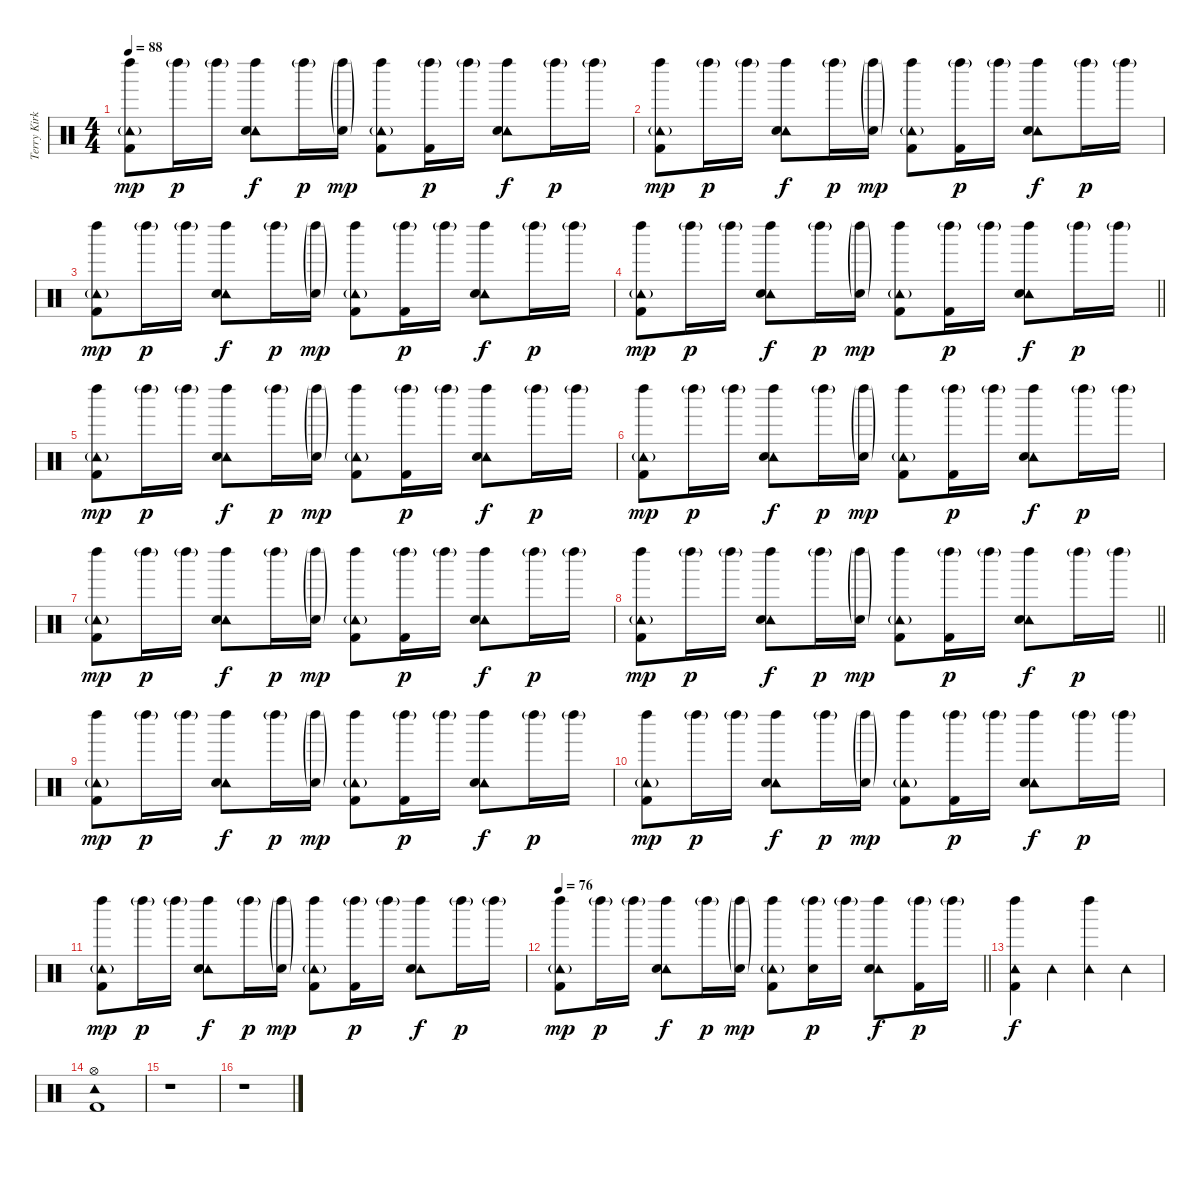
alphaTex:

\track ("Terry Kirkbride " "Terry Kirk") {instrument percussion}
\staff {score}
\articulation defaults
\ts (4 4)
\tempo 88
\clef neutral
\ks c
("Left Maraca (hit)" "Tambourine (hit)"{g} "Kick (hit) 2").8{dy mp} "Left Maraca (hit)"{g}.16{dy p} "Left Maraca (hit)"{g}.16 ("Left Maraca (hit)" "Tambourine (hit)" "Snare (hit) 2").8{dy f} "Left Maraca (hit)"{g}.16{dy p} ("Left Maraca (hit)"{g} "Snare (hit) 2"{g}).16{dy mp} ("Left Maraca (hit)" "Tambourine (hit)"{g} "Kick (hit) 2").8 ("Left Maraca (hit)"{g} "Kick (hit) 2").16{dy p} "Left Maraca (hit)"{g}.16 ("Left Maraca (hit)" "Tambourine (hit)" "Snare (hit) 2").8{dy f} "Left Maraca (hit)"{g}.16{dy p} "Left Maraca (hit)"{g}.16 |
("Left Maraca (hit)" "Tambourine (hit)"{g} "Kick (hit) 2").8{dy mp} "Left Maraca (hit)"{g}.16{dy p} "Left Maraca (hit)"{g}.16 ("Left Maraca (hit)" "Tambourine (hit)" "Snare (hit) 2").8{dy f} "Left Maraca (hit)"{g}.16{dy p} ("Left Maraca (hit)"{g} "Snare (hit) 2"{g}).16{dy mp} ("Left Maraca (hit)" "Tambourine (hit)"{g} "Kick (hit) 2").8 ("Left Maraca (hit)"{g} "Kick (hit) 2").16{dy p} "Left Maraca (hit)"{g}.16 ("Left Maraca (hit)" "Tambourine (hit)" "Snare (hit) 2").8{dy f} "Left Maraca (hit)"{g}.16{dy p} "Left Maraca (hit)"{g}.16 |
("Left Maraca (hit)" "Tambourine (hit)"{g} "Kick (hit) 2").8{dy mp} "Left Maraca (hit)"{g}.16{dy p} "Left Maraca (hit)"{g}.16 ("Left Maraca (hit)" "Tambourine (hit)" "Snare (hit) 2").8{dy f} "Left Maraca (hit)"{g}.16{dy p} ("Left Maraca (hit)"{g} "Snare (hit) 2"{g}).16{dy mp} ("Left Maraca (hit)" "Tambourine (hit)"{g} "Kick (hit) 2").8 ("Left Maraca (hit)"{g} "Kick (hit) 2").16{dy p} "Left Maraca (hit)"{g}.16 ("Left Maraca (hit)" "Tambourine (hit)" "Snare (hit) 2").8{dy f} "Left Maraca (hit)"{g}.16{dy p} "Left Maraca (hit)"{g}.16 |
\barLineRight lightlight
("Left Maraca (hit)" "Tambourine (hit)"{g} "Kick (hit) 2").8{dy mp} "Left Maraca (hit)"{g}.16{dy p} "Left Maraca (hit)"{g}.16 ("Left Maraca (hit)" "Tambourine (hit)" "Snare (hit) 2").8{dy f} "Left Maraca (hit)"{g}.16{dy p} ("Left Maraca (hit)"{g} "Snare (hit) 2"{g}).16{dy mp} ("Left Maraca (hit)" "Tambourine (hit)"{g} "Kick (hit) 2").8 ("Left Maraca (hit)"{g} "Kick (hit) 2").16{dy p} "Left Maraca (hit)"{g}.16 ("Left Maraca (hit)" "Tambourine (hit)" "Snare (hit) 2").8{dy f} "Left Maraca (hit)"{g}.16{dy p} "Left Maraca (hit)"{g}.16 |
("Left Maraca (hit)" "Tambourine (hit)"{g} "Kick (hit) 2").8{dy mp} "Left Maraca (hit)"{g}.16{dy p} "Left Maraca (hit)"{g}.16 ("Left Maraca (hit)" "Tambourine (hit)" "Snare (hit) 2").8{dy f} "Left Maraca (hit)"{g}.16{dy p} ("Left Maraca (hit)"{g} "Snare (hit) 2"{g}).16{dy mp} ("Left Maraca (hit)" "Tambourine (hit)"{g} "Kick (hit) 2").8 ("Left Maraca (hit)"{g} "Kick (hit) 2").16{dy p} "Left Maraca (hit)"{g}.16 ("Left Maraca (hit)" "Tambourine (hit)" "Snare (hit) 2").8{dy f} "Left Maraca (hit)"{g}.16{dy p} "Left Maraca (hit)"{g}.16 |
("Left Maraca (hit)" "Tambourine (hit)"{g} "Kick (hit) 2").8{dy mp} "Left Maraca (hit)"{g}.16{dy p} "Left Maraca (hit)"{g}.16 ("Left Maraca (hit)" "Tambourine (hit)" "Snare (hit) 2").8{dy f} "Left Maraca (hit)"{g}.16{dy p} ("Left Maraca (hit)"{g} "Snare (hit) 2"{g}).16{dy mp} ("Left Maraca (hit)" "Tambourine (hit)"{g} "Kick (hit) 2").8 ("Left Maraca (hit)"{g} "Kick (hit) 2").16{dy p} "Left Maraca (hit)"{g}.16 ("Left Maraca (hit)" "Tambourine (hit)" "Snare (hit) 2").8{dy f} "Left Maraca (hit)"{g}.16{dy p} "Left Maraca (hit)"{g}.16 |
("Left Maraca (hit)" "Tambourine (hit)"{g} "Kick (hit) 2").8{dy mp} "Left Maraca (hit)"{g}.16{dy p} "Left Maraca (hit)"{g}.16 ("Left Maraca (hit)" "Tambourine (hit)" "Snare (hit) 2").8{dy f} "Left Maraca (hit)"{g}.16{dy p} ("Left Maraca (hit)"{g} "Snare (hit) 2"{g}).16{dy mp} ("Left Maraca (hit)" "Tambourine (hit)"{g} "Kick (hit) 2").8 ("Left Maraca (hit)"{g} "Kick (hit) 2").16{dy p} "Left Maraca (hit)"{g}.16 ("Left Maraca (hit)" "Tambourine (hit)" "Snare (hit) 2").8{dy f} "Left Maraca (hit)"{g}.16{dy p} "Left Maraca (hit)"{g}.16 |
\barLineRight lightlight
("Left Maraca (hit)" "Tambourine (hit)"{g} "Kick (hit) 2").8{dy mp} "Left Maraca (hit)"{g}.16{dy p} "Left Maraca (hit)"{g}.16 ("Left Maraca (hit)" "Tambourine (hit)" "Snare (hit) 2").8{dy f} "Left Maraca (hit)"{g}.16{dy p} ("Left Maraca (hit)"{g} "Snare (hit) 2"{g}).16{dy mp} ("Left Maraca (hit)" "Tambourine (hit)"{g} "Kick (hit) 2").8 ("Left Maraca (hit)"{g} "Kick (hit) 2").16{dy p} "Left Maraca (hit)"{g}.16 ("Left Maraca (hit)" "Tambourine (hit)" "Snare (hit) 2").8{dy f} "Left Maraca (hit)"{g}.16{dy p} "Left Maraca (hit)"{g}.16 |
("Left Maraca (hit)" "Tambourine (hit)"{g} "Kick (hit) 2").8{dy mp} "Left Maraca (hit)"{g}.16{dy p} "Left Maraca (hit)"{g}.16 ("Left Maraca (hit)" "Tambourine (hit)" "Snare (hit) 2").8{dy f} "Left Maraca (hit)"{g}.16{dy p} ("Left Maraca (hit)"{g} "Snare (hit) 2"{g}).16{dy mp} ("Left Maraca (hit)" "Tambourine (hit)"{g} "Kick (hit) 2").8 ("Left Maraca (hit)"{g} "Kick (hit) 2").16{dy p} "Left Maraca (hit)"{g}.16 ("Left Maraca (hit)" "Tambourine (hit)" "Snare (hit) 2").8{dy f} "Left Maraca (hit)"{g}.16{dy p} "Left Maraca (hit)"{g}.16 |
("Left Maraca (hit)" "Tambourine (hit)"{g} "Kick (hit) 2").8{dy mp} "Left Maraca (hit)"{g}.16{dy p} "Left Maraca (hit)"{g}.16 ("Left Maraca (hit)" "Tambourine (hit)" "Snare (hit) 2").8{dy f} "Left Maraca (hit)"{g}.16{dy p} ("Left Maraca (hit)"{g} "Snare (hit) 2"{g}).16{dy mp} ("Left Maraca (hit)" "Tambourine (hit)"{g} "Kick (hit) 2").8 ("Left Maraca (hit)"{g} "Kick (hit) 2").16{dy p} "Left Maraca (hit)"{g}.16 ("Left Maraca (hit)" "Tambourine (hit)" "Snare (hit) 2").8{dy f} "Left Maraca (hit)"{g}.16{dy p} "Left Maraca (hit)"{g}.16 |
("Left Maraca (hit)" "Tambourine (hit)"{g} "Kick (hit) 2").8{dy mp} "Left Maraca (hit)"{g}.16{dy p} "Left Maraca (hit)"{g}.16 ("Left Maraca (hit)" "Tambourine (hit)" "Snare (hit) 2").8{dy f} "Left Maraca (hit)"{g}.16{dy p} ("Left Maraca (hit)"{g} "Snare (hit) 2"{g}).16{dy mp} ("Left Maraca (hit)" "Tambourine (hit)"{g} "Kick (hit) 2").8 ("Left Maraca (hit)"{g} "Kick (hit) 2").16{dy p} "Left Maraca (hit)"{g}.16 ("Left Maraca (hit)" "Tambourine (hit)" "Snare (hit) 2").8{dy f} "Left Maraca (hit)"{g}.16{dy p} "Left Maraca (hit)"{g}.16 |
\tempo 76
\barLineRight lightlight
("Left Maraca (hit)" "Tambourine (hit)"{g} "Kick (hit) 2").8{dy mp} "Left Maraca (hit)"{g}.16{dy p} "Left Maraca (hit)"{g}.16 ("Left Maraca (hit)" "Tambourine (hit)" "Snare (hit) 2").8{dy f} "Left Maraca (hit)"{g}.16{dy p} ("Left Maraca (hit)"{g} "Snare (hit) 2"{g}).16{dy mp} ("Left Maraca (hit)" "Tambourine (hit)"{g} "Kick (hit) 2").8 ("Left Maraca (hit)"{g} "Snare (hit) 2").16{dy p} "Left Maraca (hit)"{g}.16 ("Left Maraca (hit)" "Tambourine (hit)" "Snare (hit) 2").8{dy f} ("Left Maraca (hit)"{g} "Kick (hit) 2").16{dy p} "Left Maraca (hit)"{g}.16 |
("Left Maraca (hit)" "Tambourine (hit)" "Kick (hit) 2").4{dy f} "Tambourine (hit)".4 ("Left Maraca (hit)" "Tambourine (hit)").4 "Tambourine (hit)".4 |
("Hi-Hat (open)" "Tambourine (hit)" "Kick (hit) 2").1 |
r.1 |
r.1
